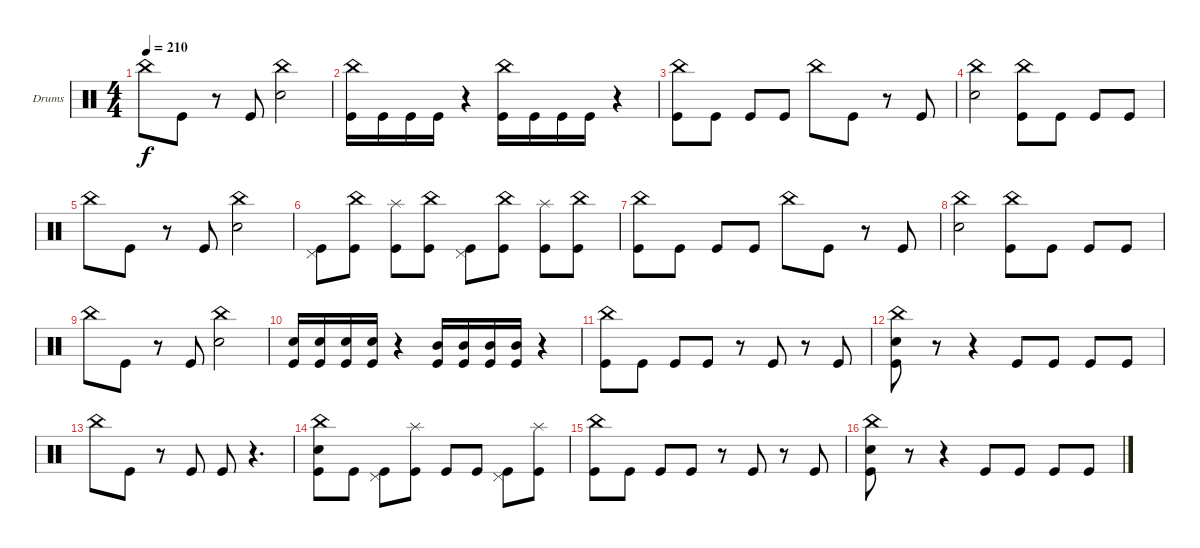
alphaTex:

\defaultSystemsLayout 4
\bracketExtendMode groupsimilarinstruments
\firstSystemTrackNameOrientation horizontal
\otherSystemsTrackNameOrientation horizontal
\track ("Drumkit" "Drums") {instrument percussion}
\staff {score}
\articulation defaults
\ts (4 4)
\tempo 210
\clef neutral
\ks c "China (hit)".8{dy f} "Kick (hit)".8
r.8 "Kick (hit)".8 ("China (hit)" "Snare (hit) 2").2 |
("Kick (hit)" "China (hit)").16 "Kick (hit)".16 "Kick (hit)".16 "Kick (hit)".16 r.4 ("Kick (hit)" "China (hit)").16 "Kick (hit)".16 "Kick (hit)".16 "Kick (hit)".16 r.4 |
("Kick (hit)" "China (hit)").8 "Kick (hit)".8 "Kick (hit)".8 "Kick (hit)".8 "China (hit)".8 "Kick (hit)".8 r.8 "Kick (hit)".8 |
("China (hit)" "Snare (hit) 2").2 ("Kick (hit)" "China (hit)").8 "Kick (hit)".8 "Kick (hit)".8 "Kick (hit)".8 |
"China (hit)".8 "Kick (hit)".8 r.8 "Kick (hit)".8 ("China (hit)" "Snare (hit) 2").2 |
("Kick (hit)" "Pedal Hi-Hat (hit)").8 ("Kick (hit)" "China (hit)").8 ("Kick (hit)" "Splash (hit)").8 ("Kick (hit)" "China (hit)").8 ("Kick (hit)" "Pedal Hi-Hat (hit)").8 ("Kick (hit)" "China (hit)").8 ("Kick (hit)" "Splash (hit)").8 ("Kick (hit)" "China (hit)").8 |
("Kick (hit)" "China (hit)").8 "Kick (hit)".8 "Kick (hit)".8 "Kick (hit)".8 "China (hit)".8 "Kick (hit)".8 r.8 "Kick (hit)".8 |
("China (hit)" "Snare (hit) 2").2 ("Kick (hit)" "China (hit)").8 "Kick (hit)".8 "Kick (hit)".8 "Kick (hit)".8 |
"China (hit)".8 "Kick (hit)".8 r.8 "Kick (hit)".8 ("China (hit)" "Snare (hit) 2").2 |
("Kick (hit)" "Snare (hit) 2").16 ("Kick (hit)" "Snare (hit) 2").16 ("Kick (hit)" "Snare (hit) 2").16 ("Kick (hit)" "Snare (hit) 2").16 r.4 ("Kick (hit)" "Mid Tom (hit)").16 ("Kick (hit)" "Mid Tom (hit)").16 ("Kick (hit)" "Mid Tom (hit)").16 ("Kick (hit)" "Mid Tom (hit)").16 r.4 |
("Kick (hit)" "China (hit)").8 "Kick (hit)".8 "Kick (hit)".8 "Kick (hit)".8 r.8 "Kick (hit)".8 r.8 "Kick (hit)".8 |
("Kick (hit)" "Snare (hit) 2" "China (hit)").8 r.8 r.4 "Kick (hit)".8 "Kick (hit)".8 "Kick (hit)".8 "Kick (hit)".8 |
"China (hit)".8 "Kick (hit)".8 r.8 "Kick (hit)".8 "Kick (hit)".8 r.4{d} |
("Kick (hit)" "China (hit)" "Snare (hit) 2").8 "Kick (hit)".8 ("Kick (hit)" "Pedal Hi-Hat (hit)").8 ("Kick (hit)" "Splash (hit)").8 "Kick (hit)".8 "Kick (hit)".8 ("Kick (hit)" "Pedal Hi-Hat (hit)").8 ("Kick (hit)" "Splash (hit)").8 |
("Kick (hit)" "China (hit)").8 "Kick (hit)".8 "Kick (hit)".8 "Kick (hit)".8 r.8 "Kick (hit)".8 r.8 "Kick (hit)".8 |
("Kick (hit)" "Snare (hit) 2" "China (hit)").8 r.8 r.4 "Kick (hit)".8 "Kick (hit)".8 "Kick (hit)".8 "Kick (hit)".8
